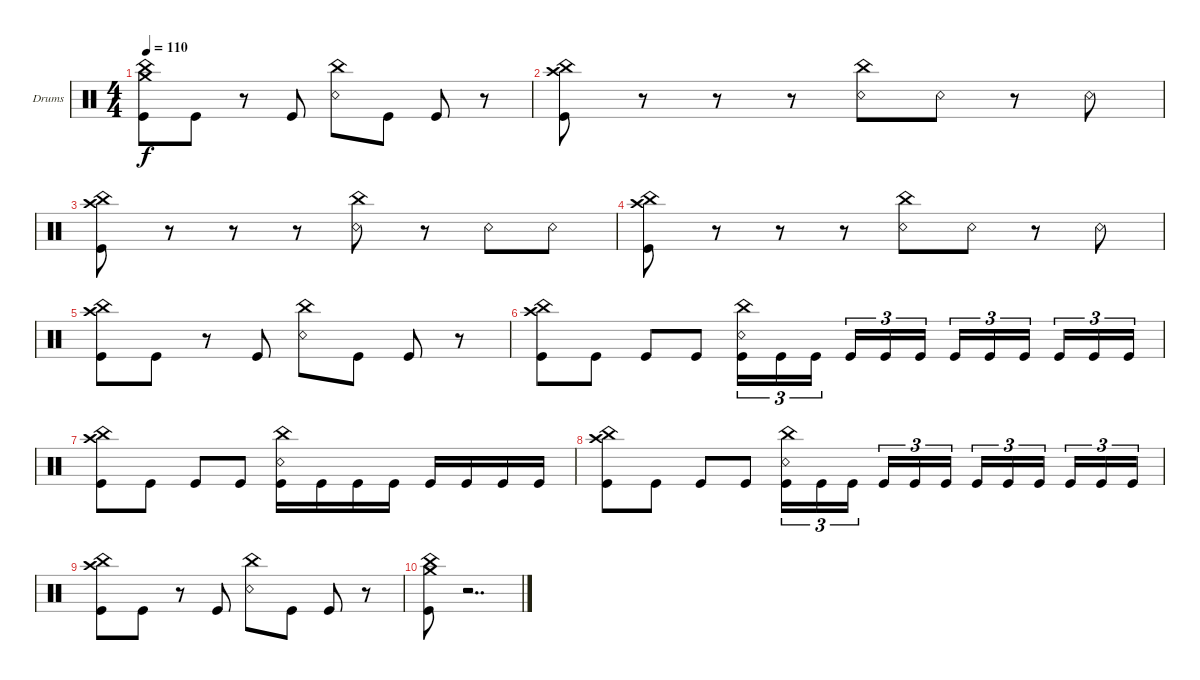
\defaultSystemsLayout 4
\bracketExtendMode groupsimilarinstruments
\firstSystemTrackNameOrientation horizontal
\otherSystemsTrackNameOrientation horizontal
\track ("Drumkit" "Drums") {instrument percussion}
\staff {score}
\articulation defaults
\ts (4 4)
\tempo 110
\clef neutral
\ks c
("China (hit)" "Kick (hit)" "Crash medium (hit)").8{dy f} "Kick (hit)".8 r.8 "Kick (hit)".8 ("Snare (rim shot)" "China (hit)").8 "Kick (hit)".8 "Kick (hit)".8 r.8 |
("China (hit)" "Kick (hit)" "Crash high (hit)").8 r.8 r.8 r.8 ("Snare (rim shot)" "China (hit)").8 "Snare (rim shot)".8 r.8 "Snare (rim shot)".8 |
("China (hit)" "Kick (hit)" "Crash high (hit)").8 r.8 r.8 r.8 ("Snare (rim shot)" "China (hit)").8 r.8 "Snare (rim shot)".8 "Snare (rim shot)".8 |
("China (hit)" "Kick (hit)" "Crash high (hit)").8 r.8 r.8 r.8 ("Snare (rim shot)" "China (hit)").8 "Snare (rim shot)".8 r.8 "Snare (rim shot)".8 |
("China (hit)" "Kick (hit)" "Crash high (hit)").8 "Kick (hit)".8 r.8 "Kick (hit)".8 ("Snare (rim shot)" "China (hit)").8 "Kick (hit)".8 "Kick (hit)".8 r.8 |
("China (hit)" "Kick (hit)" "Crash high (hit)").8 "Kick (hit)".8 "Kick (hit)".8 "Kick (hit)".8 ("Snare (rim shot)" "China (hit)" "Kick (hit)").16{tu (3 2)} "Kick (hit)".16{tu (3 2)} "Kick (hit)".16{tu (3 2)} "Kick (hit)".16{tu (3 2)} "Kick (hit)".16{tu (3 2)} "Kick (hit)".16{tu (3 2)} "Kick (hit)".16{tu (3 2)} "Kick (hit)".16{tu (3 2)} "Kick (hit)".16{tu (3 2)} "Kick (hit)".16{tu (3 2)} "Kick (hit)".16{tu (3 2)} "Kick (hit)".16{tu (3 2)} |
("China (hit)" "Kick (hit)" "Crash high (hit)").8 "Kick (hit)".8 "Kick (hit)".8 "Kick (hit)".8 ("Snare (rim shot)" "China (hit)" "Kick (hit)").16 "Kick (hit)".16 "Kick (hit)".16 "Kick (hit)".16 "Kick (hit)".16 "Kick (hit)".16 "Kick (hit)".16 "Kick (hit)".16 |
("China (hit)" "Kick (hit)" "Crash high (hit)").8 "Kick (hit)".8 "Kick (hit)".8 "Kick (hit)".8 ("Snare (rim shot)" "China (hit)" "Kick (hit)").16{tu (3 2)} "Kick (hit)".16{tu (3 2)} "Kick (hit)".16{tu (3 2)} "Kick (hit)".16{tu (3 2)} "Kick (hit)".16{tu (3 2)} "Kick (hit)".16{tu (3 2)} "Kick (hit)".16{tu (3 2)} "Kick (hit)".16{tu (3 2)} "Kick (hit)".16{tu (3 2)} "Kick (hit)".16{tu (3 2)} "Kick (hit)".16{tu (3 2)} "Kick (hit)".16{tu (3 2)} |
("China (hit)" "Kick (hit)" "Crash high (hit)").8 "Kick (hit)".8 r.8 "Kick (hit)".8 ("Snare (rim shot)" "China (hit)").8 "Kick (hit)".8 "Kick (hit)".8 r.8 |
("Kick (hit)" "China (hit)" "Crash medium (hit)").8 r.2{dd}
